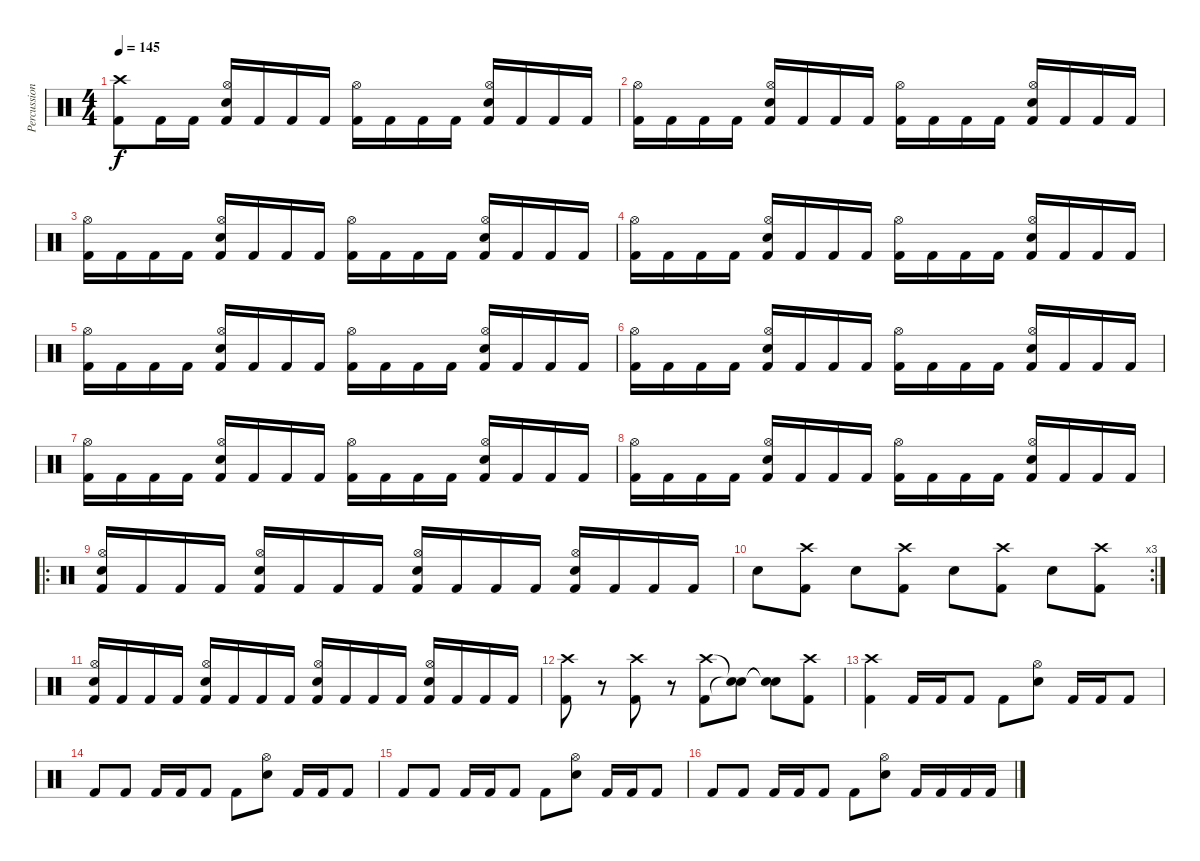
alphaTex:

\track ("Percussion" "Percussion") {instrument percussion}
\staff {score}
\articulation defaults
\ts (4 4)
\tempo 145
\clef neutral
\ks c
("Crash high (hit)" "Kick (hit) 2").8{dy f} "Kick (hit) 2".16 "Kick (hit) 2".16 ("Hi-Hat (open)" "Snare (hit) 2" "Kick (hit) 2").16 "Kick (hit) 2".16 "Kick (hit) 2".16 "Kick (hit) 2".16 ("Hi-Hat (open)" "Kick (hit) 2").16 "Kick (hit) 2".16 "Kick (hit) 2".16 "Kick (hit) 2".16 ("Hi-Hat (open)" "Snare (hit) 2" "Kick (hit) 2").16 "Kick (hit) 2".16 "Kick (hit) 2".16 "Kick (hit) 2".16 |
("Hi-Hat (open)" "Kick (hit) 2").16 "Kick (hit) 2".16 "Kick (hit) 2".16 "Kick (hit) 2".16 ("Hi-Hat (open)" "Snare (hit) 2" "Kick (hit) 2").16 "Kick (hit) 2".16 "Kick (hit) 2".16 "Kick (hit) 2".16 ("Hi-Hat (open)" "Kick (hit) 2").16 "Kick (hit) 2".16 "Kick (hit) 2".16 "Kick (hit) 2".16 ("Hi-Hat (open)" "Snare (hit) 2" "Kick (hit) 2").16 "Kick (hit) 2".16 "Kick (hit) 2".16 "Kick (hit) 2".16 |
("Hi-Hat (open)" "Kick (hit) 2").16 "Kick (hit) 2".16 "Kick (hit) 2".16 "Kick (hit) 2".16 ("Hi-Hat (open)" "Snare (hit) 2" "Kick (hit) 2").16 "Kick (hit) 2".16 "Kick (hit) 2".16 "Kick (hit) 2".16 ("Hi-Hat (open)" "Kick (hit) 2").16 "Kick (hit) 2".16 "Kick (hit) 2".16 "Kick (hit) 2".16 ("Hi-Hat (open)" "Snare (hit) 2" "Kick (hit) 2").16 "Kick (hit) 2".16 "Kick (hit) 2".16 "Kick (hit) 2".16 |
("Hi-Hat (open)" "Kick (hit) 2").16 "Kick (hit) 2".16 "Kick (hit) 2".16 "Kick (hit) 2".16 ("Hi-Hat (open)" "Snare (hit) 2" "Kick (hit) 2").16 "Kick (hit) 2".16 "Kick (hit) 2".16 "Kick (hit) 2".16 ("Hi-Hat (open)" "Kick (hit) 2").16 "Kick (hit) 2".16 "Kick (hit) 2".16 "Kick (hit) 2".16 ("Hi-Hat (open)" "Snare (hit) 2" "Kick (hit) 2").16 "Kick (hit) 2".16 "Kick (hit) 2".16 "Kick (hit) 2".16 |
("Hi-Hat (open)" "Kick (hit) 2").16 "Kick (hit) 2".16 "Kick (hit) 2".16 "Kick (hit) 2".16 ("Hi-Hat (open)" "Snare (hit) 2" "Kick (hit) 2").16 "Kick (hit) 2".16 "Kick (hit) 2".16 "Kick (hit) 2".16 ("Hi-Hat (open)" "Kick (hit) 2").16 "Kick (hit) 2".16 "Kick (hit) 2".16 "Kick (hit) 2".16 ("Hi-Hat (open)" "Snare (hit) 2" "Kick (hit) 2").16 "Kick (hit) 2".16 "Kick (hit) 2".16 "Kick (hit) 2".16 |
("Hi-Hat (open)" "Kick (hit) 2").16 "Kick (hit) 2".16 "Kick (hit) 2".16 "Kick (hit) 2".16 ("Hi-Hat (open)" "Snare (hit) 2" "Kick (hit) 2").16 "Kick (hit) 2".16 "Kick (hit) 2".16 "Kick (hit) 2".16 ("Hi-Hat (open)" "Kick (hit) 2").16 "Kick (hit) 2".16 "Kick (hit) 2".16 "Kick (hit) 2".16 ("Hi-Hat (open)" "Snare (hit) 2" "Kick (hit) 2").16 "Kick (hit) 2".16 "Kick (hit) 2".16 "Kick (hit) 2".16 |
("Hi-Hat (open)" "Kick (hit) 2").16 "Kick (hit) 2".16 "Kick (hit) 2".16 "Kick (hit) 2".16 ("Hi-Hat (open)" "Snare (hit) 2" "Kick (hit) 2").16 "Kick (hit) 2".16 "Kick (hit) 2".16 "Kick (hit) 2".16 ("Hi-Hat (open)" "Kick (hit) 2").16 "Kick (hit) 2".16 "Kick (hit) 2".16 "Kick (hit) 2".16 ("Hi-Hat (open)" "Snare (hit) 2" "Kick (hit) 2").16 "Kick (hit) 2".16 "Kick (hit) 2".16 "Kick (hit) 2".16 |
("Hi-Hat (open)" "Kick (hit) 2").16 "Kick (hit) 2".16 "Kick (hit) 2".16 "Kick (hit) 2".16 ("Hi-Hat (open)" "Snare (hit) 2" "Kick (hit) 2").16 "Kick (hit) 2".16 "Kick (hit) 2".16 "Kick (hit) 2".16 ("Hi-Hat (open)" "Kick (hit) 2").16 "Kick (hit) 2".16 "Kick (hit) 2".16 "Kick (hit) 2".16 ("Hi-Hat (open)" "Snare (hit) 2" "Kick (hit) 2").16 "Kick (hit) 2".16 "Kick (hit) 2".16 "Kick (hit) 2".16 |
\ro
("Hi-Hat (open)" "Snare (hit) 2" "Kick (hit) 2").16 "Kick (hit) 2".16 "Kick (hit) 2".16 "Kick (hit) 2".16 ("Hi-Hat (open)" "Snare (hit) 2" "Kick (hit) 2").16 "Kick (hit) 2".16 "Kick (hit) 2".16 "Kick (hit) 2".16 ("Hi-Hat (open)" "Snare (hit) 2" "Kick (hit) 2").16 "Kick (hit) 2".16 "Kick (hit) 2".16 "Kick (hit) 2".16 ("Hi-Hat (open)" "Snare (hit) 2" "Kick (hit) 2").16 "Kick (hit) 2".16 "Kick (hit) 2".16 "Kick (hit) 2".16 |
\rc 3 "Snare (hit) 2".8
("Crash high (hit)" "Kick (hit) 2").8 "Snare (hit) 2".8 ("Crash high (hit)" "Kick (hit) 2").8 "Snare (hit) 2".8 ("Crash high (hit)" "Kick (hit) 2").8 "Snare (hit) 2".8 ("Crash high (hit)" "Kick (hit) 2").8 |
("Hi-Hat (open)" "Snare (hit) 2" "Kick (hit) 2").16 "Kick (hit) 2".16 "Kick (hit) 2".16 "Kick (hit) 2".16 ("Hi-Hat (open)" "Snare (hit) 2" "Kick (hit) 2").16 "Kick (hit) 2".16 "Kick (hit) 2".16 "Kick (hit) 2".16 ("Hi-Hat (open)" "Snare (hit) 2" "Kick (hit) 2").16 "Kick (hit) 2".16 "Kick (hit) 2".16 "Kick (hit) 2".16 ("Hi-Hat (open)" "Snare (hit) 2" "Kick (hit) 2").16 "Kick (hit) 2".16 "Kick (hit) 2".16 "Kick (hit) 2".16 |
("Crash high (hit)" "Kick (hit) 2").8 r.8 ("Crash high (hit)" "Kick (hit) 2").8 r.8 ("Crash high (hit)" "Kick (hit) 2").8 ("Snare (hit)"{t} "Snare (hit)"{t}).8 ("Snare (hit)"{t} "Snare (hit)"{t}).8 ("Crash high (hit)" "Kick (hit) 2").8 |
("Crash high (hit)" "Kick (hit) 2").4 "Kick (hit) 2".16 "Kick (hit) 2".16 "Kick (hit) 2".8 "Kick (hit) 2".8 ("Hi-Hat (open)" "Snare (hit) 2").8 "Kick (hit) 2".16 "Kick (hit) 2".16 "Kick (hit) 2".8 |
"Kick (hit) 2".8 "Kick (hit) 2".8 "Kick (hit) 2".16 "Kick (hit) 2".16 "Kick (hit) 2".8 "Kick (hit) 2".8 ("Hi-Hat (open)" "Snare (hit) 2").8 "Kick (hit) 2".16 "Kick (hit) 2".16 "Kick (hit) 2".8 |
"Kick (hit) 2".8 "Kick (hit) 2".8 "Kick (hit) 2".16 "Kick (hit) 2".16 "Kick (hit) 2".8 "Kick (hit) 2".8 ("Hi-Hat (open)" "Snare (hit) 2").8 "Kick (hit) 2".16 "Kick (hit) 2".16 "Kick (hit) 2".8 |
"Kick (hit) 2".8 "Kick (hit) 2".8 "Kick (hit) 2".16 "Kick (hit) 2".16 "Kick (hit) 2".8 "Kick (hit) 2".8 ("Hi-Hat (open)" "Snare (hit) 2").8 "Kick (hit) 2".16 "Kick (hit) 2".16 "Kick (hit) 2".16 "Kick (hit) 2".16
